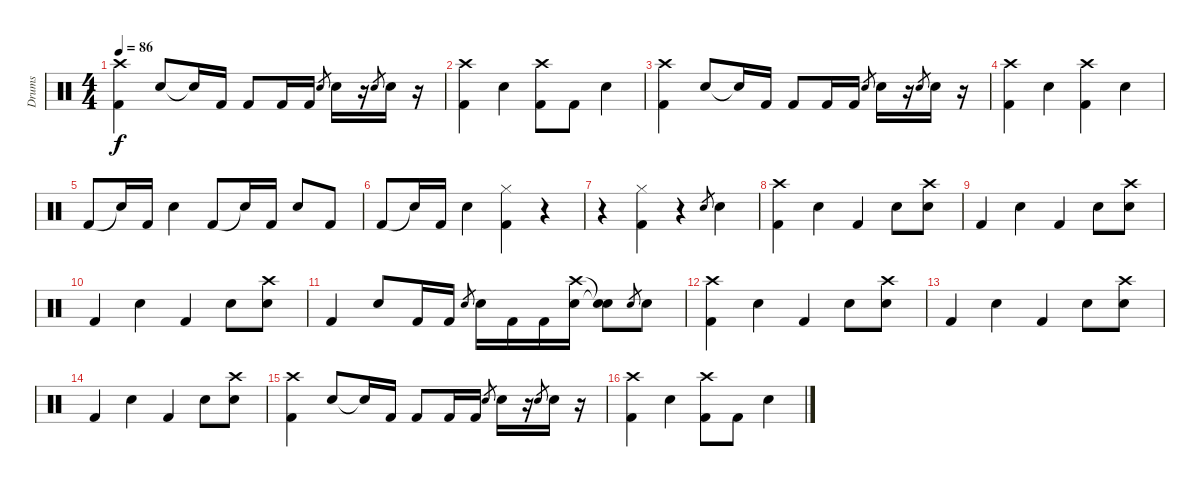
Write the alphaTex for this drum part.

\track ("Drums" "Drums") {instrument percussion}
\staff {score}
\articulation defaults
\ts (4 4)
\tempo 86
\clef neutral
\ks c
("Crash high (hit)" "Kick (hit) 2").4{dy f} "Electric Snare (hit)".8 "Snare (hit)"{t}.16 "Kick (hit) 2".16 "Kick (hit) 2".8 "Kick (hit) 2".16 "Kick (hit) 2".16 "Electric Snare (hit)".8{gr} "Electric Snare (hit)".16 r.16 "Electric Snare (hit)".8{gr} "Electric Snare (hit)".16 r.16 |
("Crash high (hit)" "Kick (hit) 2").4 "Electric Snare (hit)".4 ("Crash high (hit)" "Kick (hit) 2").8 "Kick (hit) 2".8 "Electric Snare (hit)".4 |
("Crash high (hit)" "Kick (hit) 2").4 "Electric Snare (hit)".8 "Snare (hit)"{t}.16 "Kick (hit) 2".16 "Kick (hit) 2".8 "Kick (hit) 2".16 "Kick (hit) 2".16 "Electric Snare (hit)".8{gr} "Electric Snare (hit)".16 r.16 "Electric Snare (hit)".8{gr} "Electric Snare (hit)".16 r.16 |
("Crash high (hit)" "Kick (hit) 2").4 "Electric Snare (hit)".4 ("Crash high (hit)" "Kick (hit) 2").4 "Electric Snare (hit)".4 |
"Kick (hit) 2".8 "Snare (hit)"{t}.16 "Kick (hit) 2".16 "Electric Snare (hit)".4 "Kick (hit) 2".8 "Snare (hit)"{t}.16 "Kick (hit) 2".16 "Electric Snare (hit)".8 "Kick (hit) 2".8 |
"Kick (hit) 2".8 "Snare (hit)"{t}.16 "Kick (hit) 2".16 "Electric Snare (hit)".4 ("Hi-Hat (closed)" "Kick (hit) 2").4 r.4 |
r.4 ("Hi-Hat (closed)" "Kick (hit) 2").4 r.4 "Electric Snare (hit)".8{gr} "Electric Snare (hit)".4 |
("Crash high (hit)" "Kick (hit) 2").4 "Electric Snare (hit)".4 "Kick (hit) 2".4 "Electric Snare (hit)".8 ("Crash high (hit)" "Electric Snare (hit)").8 |
"Kick (hit) 2".4 "Electric Snare (hit)".4 "Kick (hit) 2".4 "Electric Snare (hit)".8 ("Crash high (hit)" "Electric Snare (hit)").8 |
"Kick (hit) 2".4 "Electric Snare (hit)".4 "Kick (hit) 2".4 "Electric Snare (hit)".8 ("Crash high (hit)" "Electric Snare (hit)").8 |
"Kick (hit) 2".4 "Electric Snare (hit)".8 "Kick (hit) 2".16 "Kick (hit) 2".16 "Electric Snare (hit)".8{gr} "Electric Snare (hit)".16 "Kick (hit) 2".16 "Kick (hit) 2".16 ("Crash high (hit)" "Electric Snare (hit)").16 ("Snare (hit)"{t} "Snare (hit)"{t}).8 "Electric Snare (hit)".8{gr} "Electric Snare (hit)".8 |
("Crash high (hit)" "Kick (hit) 2").4 "Electric Snare (hit)".4 "Kick (hit) 2".4 "Electric Snare (hit)".8 ("Crash high (hit)" "Electric Snare (hit)").8 |
"Kick (hit) 2".4 "Electric Snare (hit)".4 "Kick (hit) 2".4 "Electric Snare (hit)".8 ("Crash high (hit)" "Electric Snare (hit)").8 |
"Kick (hit) 2".4 "Electric Snare (hit)".4 "Kick (hit) 2".4 "Electric Snare (hit)".8 ("Crash high (hit)" "Electric Snare (hit)").8 |
("Crash high (hit)" "Kick (hit) 2").4 "Electric Snare (hit)".8 "Snare (hit)"{t}.16 "Kick (hit) 2".16 "Kick (hit) 2".8 "Kick (hit) 2".16 "Kick (hit) 2".16 "Electric Snare (hit)".8{gr} "Electric Snare (hit)".16 r.16 "Electric Snare (hit)".8{gr} "Electric Snare (hit)".16 r.16 |
("Crash high (hit)" "Kick (hit) 2").4 "Electric Snare (hit)".4 ("Crash high (hit)" "Kick (hit) 2").8 "Kick (hit) 2".8 "Electric Snare (hit)".4
